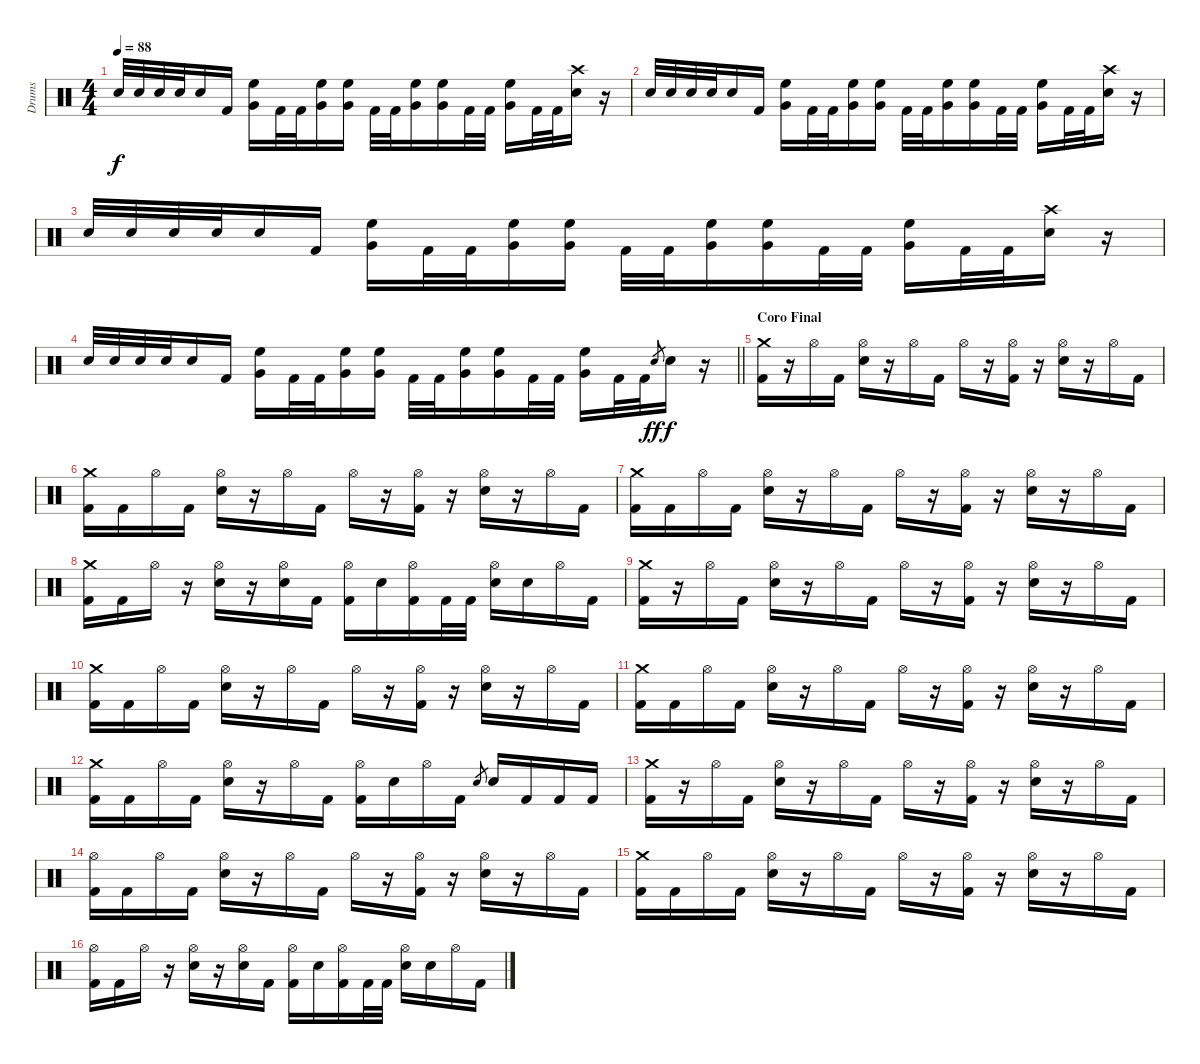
\track ("Drums" "Drums") {instrument percussion}
\staff {score}
\articulation defaults
\ts (4 4)
\tempo 88
\clef neutral
\ks c "Snare (hit) 2".32{dy f} "Snare (hit) 2".32 "Snare (hit) 2".32 "Snare (hit) 2".32 "Snare (hit) 2".16 "Kick (hit) 2".16
("High Floor Tom (hit)" "Very Low Tom (hit)").16 "Kick (hit) 2".32 "Kick (hit) 2".32 ("High Floor Tom (hit)" "Very Low Tom (hit)").16 ("High Floor Tom (hit)" "Very Low Tom (hit)").16 "Kick (hit) 2".32 "Kick (hit) 2".32 ("High Floor Tom (hit)" "Very Low Tom (hit)").16 ("High Floor Tom (hit)" "Very Low Tom (hit)").16 "Kick (hit) 2".32 "Kick (hit) 2".32 ("High Floor Tom (hit)" "Very Low Tom (hit)").16 "Kick (hit) 2".32 "Kick (hit) 2".32 ("Crash high (hit)" "Snare (hit) 2").16 r.16 |
"Snare (hit) 2".32 "Snare (hit) 2".32 "Snare (hit) 2".32 "Snare (hit) 2".32 "Snare (hit) 2".16 "Kick (hit) 2".16 ("High Floor Tom (hit)" "Very Low Tom (hit)").16 "Kick (hit) 2".32 "Kick (hit) 2".32 ("High Floor Tom (hit)" "Very Low Tom (hit)").16 ("High Floor Tom (hit)" "Very Low Tom (hit)").16 "Kick (hit) 2".32 "Kick (hit) 2".32 ("High Floor Tom (hit)" "Very Low Tom (hit)").16 ("High Floor Tom (hit)" "Very Low Tom (hit)").16 "Kick (hit) 2".32 "Kick (hit) 2".32 ("High Floor Tom (hit)" "Very Low Tom (hit)").16 "Kick (hit) 2".32 "Kick (hit) 2".32 ("Crash high (hit)" "Snare (hit) 2").16 r.16 |
"Snare (hit) 2".32 "Snare (hit) 2".32 "Snare (hit) 2".32 "Snare (hit) 2".32 "Snare (hit) 2".16 "Kick (hit) 2".16 ("High Floor Tom (hit)" "Very Low Tom (hit)").16 "Kick (hit) 2".32 "Kick (hit) 2".32 ("High Floor Tom (hit)" "Very Low Tom (hit)").16 ("High Floor Tom (hit)" "Very Low Tom (hit)").16 "Kick (hit) 2".32 "Kick (hit) 2".32 ("High Floor Tom (hit)" "Very Low Tom (hit)").16 ("High Floor Tom (hit)" "Very Low Tom (hit)").16 "Kick (hit) 2".32 "Kick (hit) 2".32 ("High Floor Tom (hit)" "Very Low Tom (hit)").16 "Kick (hit) 2".32 "Kick (hit) 2".32 ("Crash high (hit)" "Snare (hit) 2").16 r.16 |
\barLineRight lightlight "Snare (hit) 2".32 "Snare (hit) 2".32 "Snare (hit) 2".32 "Snare (hit) 2".32 "Snare (hit) 2".16 "Kick (hit) 2".16
("High Floor Tom (hit)" "Very Low Tom (hit)").16 "Kick (hit) 2".32 "Kick (hit) 2".32 ("High Floor Tom (hit)" "Very Low Tom (hit)").16 ("High Floor Tom (hit)" "Very Low Tom (hit)").16 "Kick (hit) 2".32 "Kick (hit) 2".32 ("High Floor Tom (hit)" "Very Low Tom (hit)").16 ("High Floor Tom (hit)" "Very Low Tom (hit)").16 "Kick (hit) 2".32 "Kick (hit) 2".32 ("High Floor Tom (hit)" "Very Low Tom (hit)").16 "Kick (hit) 2".32 "Kick (hit) 2".32 "Snare (hit) 2".8{gr dy ff} "Snare (hit) 2".16{dy f} r.16 |
\section ("" "Coro Final")
("Crash medium (hit)" "Kick (hit) 2").16 r.16 "Hi-Hat (open)".16 "Kick (hit) 2".16 ("Hi-Hat (open)" "Snare (hit) 2").16 r.16 "Hi-Hat (open)".16 "Kick (hit) 2".16 "Hi-Hat (open)".16 r.16 ("Hi-Hat (open)" "Kick (hit) 2").16 r.16 ("Hi-Hat (open)" "Snare (hit) 2").16 r.16 "Hi-Hat (open)".16 "Kick (hit) 2".16 |
("Crash medium (hit)" "Kick (hit) 2").16 "Kick (hit) 2".16 "Hi-Hat (open)".16 "Kick (hit) 2".16 ("Hi-Hat (open)" "Snare (hit) 2").16 r.16 "Hi-Hat (open)".16 "Kick (hit) 2".16 "Hi-Hat (open)".16 r.16 ("Hi-Hat (open)" "Kick (hit) 2").16 r.16 ("Hi-Hat (open)" "Snare (hit) 2").16 r.16 "Hi-Hat (open)".16 "Kick (hit) 2".16 |
("Crash medium (hit)" "Kick (hit) 2").16 "Kick (hit) 2".16 "Hi-Hat (open)".16 "Kick (hit) 2".16 ("Hi-Hat (open)" "Snare (hit) 2").16 r.16 "Hi-Hat (open)".16 "Kick (hit) 2".16 "Hi-Hat (open)".16 r.16 ("Hi-Hat (open)" "Kick (hit) 2").16 r.16 ("Hi-Hat (open)" "Snare (hit) 2").16 r.16 "Hi-Hat (open)".16 "Kick (hit) 2".16 |
("Crash medium (hit)" "Kick (hit) 2").16 "Kick (hit) 2".16 "Hi-Hat (open)".16 r.16 ("Hi-Hat (open)" "Snare (hit) 2").16 r.16 ("Hi-Hat (open)" "Snare (hit) 2").16 "Kick (hit) 2".16 ("Hi-Hat (open)" "Kick (hit) 2").16 "Snare (hit) 2".16 ("Hi-Hat (open)" "Kick (hit) 2").16 "Kick (hit) 2".32 "Kick (hit) 2".32 ("Hi-Hat (open)" "Snare (hit) 2").16 "Snare (hit) 2".16 "Hi-Hat (open)".16 "Kick (hit) 2".16 |
("Crash medium (hit)" "Kick (hit) 2").16 r.16 "Hi-Hat (open)".16 "Kick (hit) 2".16 ("Hi-Hat (open)" "Snare (hit) 2").16 r.16 "Hi-Hat (open)".16 "Kick (hit) 2".16 "Hi-Hat (open)".16 r.16 ("Hi-Hat (open)" "Kick (hit) 2").16 r.16 ("Hi-Hat (open)" "Snare (hit) 2").16 r.16 "Hi-Hat (open)".16 "Kick (hit) 2".16 |
("Crash medium (hit)" "Kick (hit) 2").16 "Kick (hit) 2".16 "Hi-Hat (open)".16 "Kick (hit) 2".16 ("Hi-Hat (open)" "Snare (hit) 2").16 r.16 "Hi-Hat (open)".16 "Kick (hit) 2".16 "Hi-Hat (open)".16 r.16 ("Hi-Hat (open)" "Kick (hit) 2").16 r.16 ("Hi-Hat (open)" "Snare (hit) 2").16 r.16 "Hi-Hat (open)".16 "Kick (hit) 2".16 |
("Crash medium (hit)" "Kick (hit) 2").16 "Kick (hit) 2".16 "Hi-Hat (open)".16 "Kick (hit) 2".16 ("Hi-Hat (open)" "Snare (hit) 2").16 r.16 "Hi-Hat (open)".16 "Kick (hit) 2".16 "Hi-Hat (open)".16 r.16 ("Hi-Hat (open)" "Kick (hit) 2").16 r.16 ("Hi-Hat (open)" "Snare (hit) 2").16 r.16 "Hi-Hat (open)".16 "Kick (hit) 2".16 |
("Crash medium (hit)" "Kick (hit) 2").16 "Kick (hit) 2".16 "Hi-Hat (open)".16 "Kick (hit) 2".16 ("Hi-Hat (open)" "Snare (hit) 2").16 r.16 "Hi-Hat (open)".16 "Kick (hit) 2".16 ("Hi-Hat (open)" "Kick (hit) 2").16 "Snare (hit) 2".16 "Hi-Hat (open)".16 "Kick (hit) 2".16 "Snare (hit) 2".8{gr} "Snare (hit) 2".16 "Kick (hit) 2".16 "Kick (hit) 2".16 "Kick (hit) 2".16 |
("Crash medium (hit)" "Kick (hit) 2").16 r.16 "Hi-Hat (open)".16 "Kick (hit) 2".16 ("Hi-Hat (open)" "Snare (hit) 2").16 r.16 "Hi-Hat (open)".16 "Kick (hit) 2".16 "Hi-Hat (open)".16 r.16 ("Hi-Hat (open)" "Kick (hit) 2").16 r.16 ("Hi-Hat (open)" "Snare (hit) 2").16 r.16 "Hi-Hat (open)".16 "Kick (hit) 2".16 |
("Hi-Hat (open)" "Kick (hit) 2").16 "Kick (hit) 2".16 "Hi-Hat (open)".16 "Kick (hit) 2".16 ("Hi-Hat (open)" "Snare (hit) 2").16 r.16 "Hi-Hat (open)".16 "Kick (hit) 2".16 "Hi-Hat (open)".16 r.16 ("Hi-Hat (open)" "Kick (hit) 2").16 r.16 ("Hi-Hat (open)" "Snare (hit) 2").16 r.16 "Hi-Hat (open)".16 "Kick (hit) 2".16 |
("Crash medium (hit)" "Kick (hit) 2").16 "Kick (hit) 2".16 "Hi-Hat (open)".16 "Kick (hit) 2".16 ("Hi-Hat (open)" "Snare (hit) 2").16 r.16 "Hi-Hat (open)".16 "Kick (hit) 2".16 "Hi-Hat (open)".16 r.16 ("Hi-Hat (open)" "Kick (hit) 2").16 r.16 ("Hi-Hat (open)" "Snare (hit) 2").16 r.16 "Hi-Hat (open)".16 "Kick (hit) 2".16 |
("Hi-Hat (open)" "Kick (hit) 2").16 "Kick (hit) 2".16 "Hi-Hat (open)".16 r.16 ("Hi-Hat (open)" "Snare (hit) 2").16 r.16 ("Hi-Hat (open)" "Snare (hit) 2").16 "Kick (hit) 2".16 ("Hi-Hat (open)" "Kick (hit) 2").16 "Snare (hit) 2".16 ("Hi-Hat (open)" "Kick (hit) 2").16 "Kick (hit) 2".32 "Kick (hit) 2".32 ("Hi-Hat (open)" "Snare (hit) 2").16 "Snare (hit) 2".16 "Hi-Hat (open)".16 "Kick (hit) 2".16
